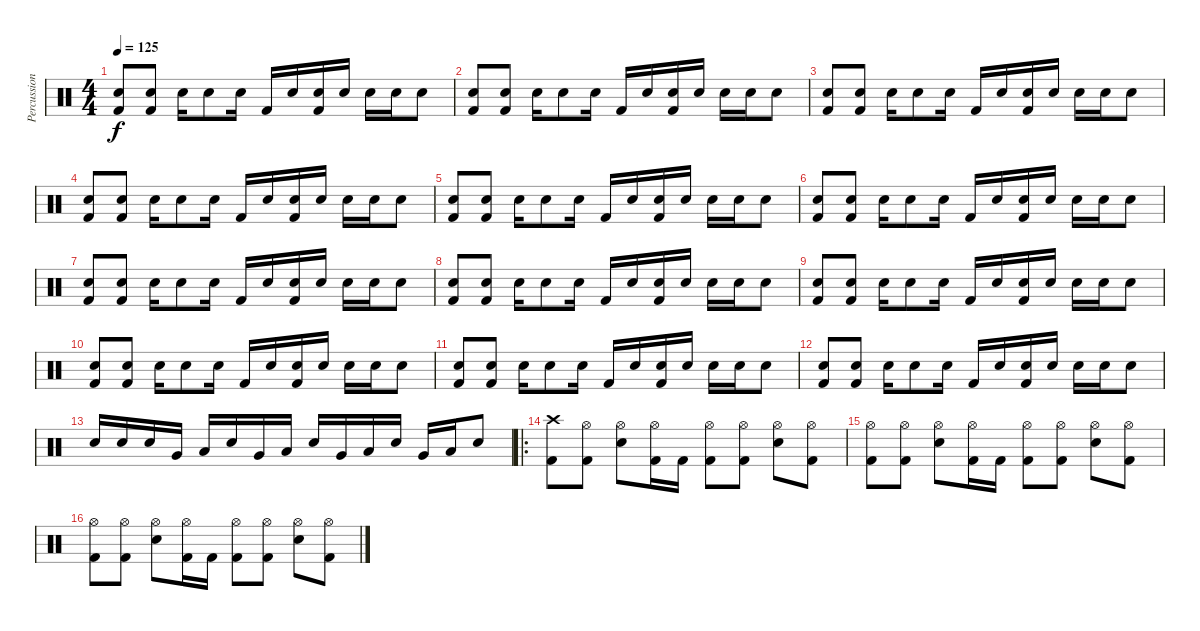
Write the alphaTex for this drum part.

\track ("Percussion" "Percussion") {instrument percussion}
\staff {score}
\articulation defaults
\ts (4 4)
\tempo 125
\clef neutral
\ks c
("Electric Snare (hit)" "Kick (hit) 2").8{dy f} ("Electric Snare (hit)" "Kick (hit) 2").8 "Electric Snare (hit)".16 "Electric Snare (hit)".8 "Electric Snare (hit)".16 "Kick (hit) 2".16 "Electric Snare (hit)".16 ("Electric Snare (hit)" "Kick (hit) 2").16 "Electric Snare (hit)".16 "Electric Snare (hit)".16 "Electric Snare (hit)".16 "Electric Snare (hit)".8 |
("Electric Snare (hit)" "Kick (hit) 2").8 ("Electric Snare (hit)" "Kick (hit) 2").8 "Electric Snare (hit)".16 "Electric Snare (hit)".8 "Electric Snare (hit)".16 "Kick (hit) 2".16 "Electric Snare (hit)".16 ("Electric Snare (hit)" "Kick (hit) 2").16 "Electric Snare (hit)".16 "Electric Snare (hit)".16 "Electric Snare (hit)".16 "Electric Snare (hit)".8 |
("Electric Snare (hit)" "Kick (hit) 2").8 ("Electric Snare (hit)" "Kick (hit) 2").8 "Electric Snare (hit)".16 "Electric Snare (hit)".8 "Electric Snare (hit)".16 "Kick (hit) 2".16 "Electric Snare (hit)".16 ("Electric Snare (hit)" "Kick (hit) 2").16 "Electric Snare (hit)".16 "Electric Snare (hit)".16 "Electric Snare (hit)".16 "Electric Snare (hit)".8 |
("Electric Snare (hit)" "Kick (hit) 2").8 ("Electric Snare (hit)" "Kick (hit) 2").8 "Electric Snare (hit)".16 "Electric Snare (hit)".8 "Electric Snare (hit)".16 "Kick (hit) 2".16 "Electric Snare (hit)".16 ("Electric Snare (hit)" "Kick (hit) 2").16 "Electric Snare (hit)".16 "Electric Snare (hit)".16 "Electric Snare (hit)".16 "Electric Snare (hit)".8 |
("Electric Snare (hit)" "Kick (hit) 2").8 ("Electric Snare (hit)" "Kick (hit) 2").8 "Electric Snare (hit)".16 "Electric Snare (hit)".8 "Electric Snare (hit)".16 "Kick (hit) 2".16 "Electric Snare (hit)".16 ("Electric Snare (hit)" "Kick (hit) 2").16 "Electric Snare (hit)".16 "Electric Snare (hit)".16 "Electric Snare (hit)".16 "Electric Snare (hit)".8 |
("Electric Snare (hit)" "Kick (hit) 2").8 ("Electric Snare (hit)" "Kick (hit) 2").8 "Electric Snare (hit)".16 "Electric Snare (hit)".8 "Electric Snare (hit)".16 "Kick (hit) 2".16 "Electric Snare (hit)".16 ("Electric Snare (hit)" "Kick (hit) 2").16 "Electric Snare (hit)".16 "Electric Snare (hit)".16 "Electric Snare (hit)".16 "Electric Snare (hit)".8 |
("Electric Snare (hit)" "Kick (hit) 2").8 ("Electric Snare (hit)" "Kick (hit) 2").8 "Electric Snare (hit)".16 "Electric Snare (hit)".8 "Electric Snare (hit)".16 "Kick (hit) 2".16 "Electric Snare (hit)".16 ("Electric Snare (hit)" "Kick (hit) 2").16 "Electric Snare (hit)".16 "Electric Snare (hit)".16 "Electric Snare (hit)".16 "Electric Snare (hit)".8 |
("Electric Snare (hit)" "Kick (hit) 2").8 ("Electric Snare (hit)" "Kick (hit) 2").8 "Electric Snare (hit)".16 "Electric Snare (hit)".8 "Electric Snare (hit)".16 "Kick (hit) 2".16 "Electric Snare (hit)".16 ("Electric Snare (hit)" "Kick (hit) 2").16 "Electric Snare (hit)".16 "Electric Snare (hit)".16 "Electric Snare (hit)".16 "Electric Snare (hit)".8 |
("Electric Snare (hit)" "Kick (hit) 2").8 ("Electric Snare (hit)" "Kick (hit) 2").8 "Electric Snare (hit)".16 "Electric Snare (hit)".8 "Electric Snare (hit)".16 "Kick (hit) 2".16 "Electric Snare (hit)".16 ("Electric Snare (hit)" "Kick (hit) 2").16 "Electric Snare (hit)".16 "Electric Snare (hit)".16 "Electric Snare (hit)".16 "Electric Snare (hit)".8 |
("Electric Snare (hit)" "Kick (hit) 2").8 ("Electric Snare (hit)" "Kick (hit) 2").8 "Electric Snare (hit)".16 "Electric Snare (hit)".8 "Electric Snare (hit)".16 "Kick (hit) 2".16 "Electric Snare (hit)".16 ("Electric Snare (hit)" "Kick (hit) 2").16 "Electric Snare (hit)".16 "Electric Snare (hit)".16 "Electric Snare (hit)".16 "Electric Snare (hit)".8 |
("Electric Snare (hit)" "Kick (hit) 2").8 ("Electric Snare (hit)" "Kick (hit) 2").8 "Electric Snare (hit)".16 "Electric Snare (hit)".8 "Electric Snare (hit)".16 "Kick (hit) 2".16 "Electric Snare (hit)".16 ("Electric Snare (hit)" "Kick (hit) 2").16 "Electric Snare (hit)".16 "Electric Snare (hit)".16 "Electric Snare (hit)".16 "Electric Snare (hit)".8 |
("Electric Snare (hit)" "Kick (hit) 2").8 ("Electric Snare (hit)" "Kick (hit) 2").8 "Electric Snare (hit)".16 "Electric Snare (hit)".8 "Electric Snare (hit)".16 "Kick (hit) 2".16 "Electric Snare (hit)".16 ("Electric Snare (hit)" "Kick (hit) 2").16 "Electric Snare (hit)".16 "Electric Snare (hit)".16 "Electric Snare (hit)".16 "Electric Snare (hit)".8 |
"Electric Snare (hit)".16 "Electric Snare (hit)".16 "Electric Snare (hit)".16 "Very Low Tom (hit)".16 "Low Floor Tom (hit)".16 "Electric Snare (hit)".16 "Very Low Tom (hit)".16 "Low Floor Tom (hit)".16 "Electric Snare (hit)".16 "Very Low Tom (hit)".16 "Low Floor Tom (hit)".16 "Electric Snare (hit)".16 "Very Low Tom (hit)".16 "Low Floor Tom (hit)".16 "Electric Snare (hit)".8 |
\ro
("Crash high (hit)" "Kick (hit) 2").8 ("Hi-Hat (open)" "Kick (hit) 2").8 ("Hi-Hat (open)" "Electric Snare (hit)").8 ("Hi-Hat (open)" "Kick (hit) 2").16 "Kick (hit) 2".16 ("Hi-Hat (open)" "Kick (hit) 2").8 ("Hi-Hat (open)" "Kick (hit) 2").8 ("Hi-Hat (open)" "Electric Snare (hit)").8 ("Hi-Hat (open)" "Kick (hit) 2").8 |
("Hi-Hat (open)" "Kick (hit) 2").8 ("Hi-Hat (open)" "Kick (hit) 2").8 ("Hi-Hat (open)" "Electric Snare (hit)").8 ("Hi-Hat (open)" "Kick (hit) 2").16 "Kick (hit) 2".16 ("Hi-Hat (open)" "Kick (hit) 2").8 ("Hi-Hat (open)" "Kick (hit) 2").8 ("Hi-Hat (open)" "Electric Snare (hit)").8 ("Hi-Hat (open)" "Kick (hit) 2").8 |
("Hi-Hat (open)" "Kick (hit) 2").8 ("Hi-Hat (open)" "Kick (hit) 2").8 ("Hi-Hat (open)" "Electric Snare (hit)").8 ("Hi-Hat (open)" "Kick (hit) 2").16 "Kick (hit) 2".16 ("Hi-Hat (open)" "Kick (hit) 2").8 ("Hi-Hat (open)" "Kick (hit) 2").8 ("Hi-Hat (open)" "Electric Snare (hit)").8 ("Hi-Hat (open)" "Kick (hit) 2").8
